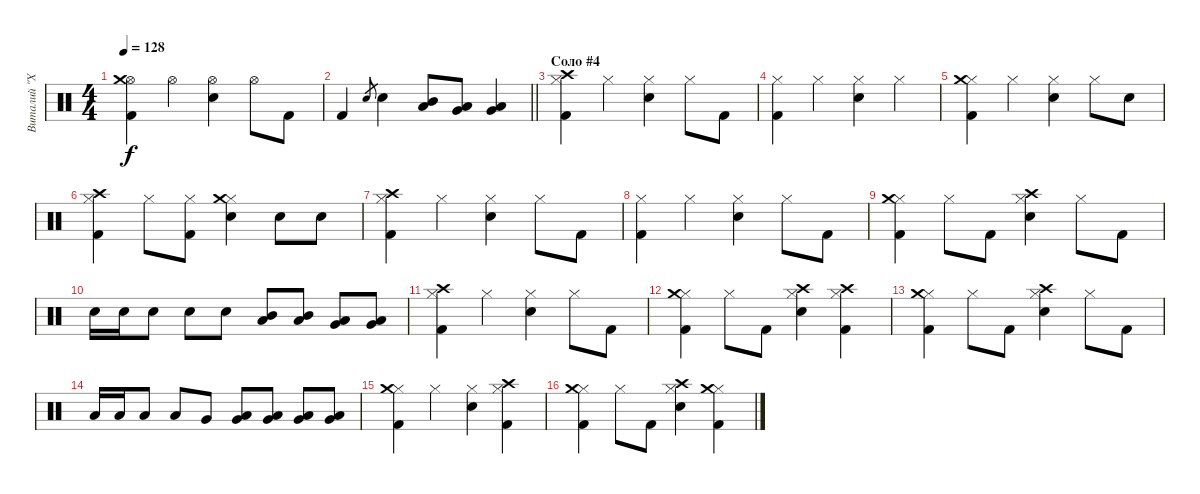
\track ("Виталий \"Хамер\" Лядов" "Виталий \"Х") {instrument percussion}
\staff {score}
\articulation defaults
\ts (4 4)
\tempo 128
\clef neutral
\ks c
("Kick (hit) 2" "Hi-Hat (open)" "Crash medium (hit)").4{dy f} "Hi-Hat (open)".4 ("Electric Snare (hit)" "Hi-Hat (open)").4 "Hi-Hat (open)".8 "Kick (hit) 2".8 |
\barLineRight lightlight "Kick (hit) 2".4 "Electric Snare (hit)".8{gr} "Electric Snare (hit)".4
("Mid Tom (hit)" "Low Tom (hit)").8 ("Low Tom (hit)" "Very Low Tom (hit)").8 ("Very Low Tom (hit)" "Low Floor Tom (hit)").4 |
\section ("" "Соло #4")
("Kick (hit) 2" "Hi-Hat (closed)" "Crash high (hit)").4 "Hi-Hat (closed)".4 ("Electric Snare (hit)" "Hi-Hat (closed)").4 "Hi-Hat (closed)".8 "Kick (hit) 2".8 |
("Kick (hit) 2" "Hi-Hat (closed)").4 "Hi-Hat (closed)".4 ("Electric Snare (hit)" "Hi-Hat (closed)").4 "Hi-Hat (closed)".4 |
("Kick (hit) 2" "Hi-Hat (closed)" "Crash medium (hit)").4 "Hi-Hat (closed)".4 ("Electric Snare (hit)" "Hi-Hat (closed)").4 "Hi-Hat (closed)".8 "Electric Snare (hit)".8 |
("Kick (hit) 2" "Hi-Hat (closed)" "Crash high (hit)").4 "Hi-Hat (closed)".8 ("Kick (hit) 2" "Hi-Hat (closed)").8 ("Electric Snare (hit)" "Hi-Hat (closed)" "Crash medium (hit)").4 "Electric Snare (hit)".8 "Electric Snare (hit)".8 |
("Kick (hit) 2" "Hi-Hat (closed)" "Crash high (hit)").4 "Hi-Hat (closed)".4 ("Electric Snare (hit)" "Hi-Hat (closed)").4 "Hi-Hat (closed)".8 "Kick (hit) 2".8 |
("Kick (hit) 2" "Hi-Hat (closed)").4 "Hi-Hat (closed)".4 ("Electric Snare (hit)" "Hi-Hat (closed)").4 "Hi-Hat (closed)".8 "Kick (hit) 2".8 |
("Kick (hit) 2" "Hi-Hat (closed)" "Crash medium (hit)").4 "Hi-Hat (closed)".8 "Kick (hit) 2".8 ("Electric Snare (hit)" "Hi-Hat (closed)" "Crash high (hit)").4 "Hi-Hat (closed)".8 "Kick (hit) 2".8 |
"Electric Snare (hit)".16 "Electric Snare (hit)".16 "Electric Snare (hit)".8 "Electric Snare (hit)".8 "Electric Snare (hit)".8 ("Low Tom (hit)" "Mid Tom (hit)").8 ("Low Tom (hit)" "Mid Tom (hit)").8 ("Very Low Tom (hit)" "Low Tom (hit)").8 ("Very Low Tom (hit)" "Low Tom (hit)").8 |
("Kick (hit) 2" "Hi-Hat (closed)" "Crash high (hit)").4 "Hi-Hat (closed)".4 ("Electric Snare (hit)" "Hi-Hat (closed)").4 "Hi-Hat (closed)".8 "Kick (hit) 2".8 |
("Kick (hit) 2" "Hi-Hat (closed)" "Crash medium (hit)").4 "Hi-Hat (closed)".8 "Kick (hit) 2".8 ("Electric Snare (hit)" "Hi-Hat (closed)" "Crash high (hit)").4 ("Kick (hit) 2" "Hi-Hat (closed)" "Crash high (hit)").4 |
("Kick (hit) 2" "Hi-Hat (closed)" "Crash medium (hit)").4 "Hi-Hat (closed)".8 "Kick (hit) 2".8 ("Electric Snare (hit)" "Hi-Hat (closed)" "Crash high (hit)").4 "Hi-Hat (closed)".8 "Kick (hit) 2".8 |
"Low Tom (hit)".16 "Low Tom (hit)".16 "Low Tom (hit)".8 "Low Tom (hit)".8 "Very Low Tom (hit)".8 ("Very Low Tom (hit)" "Low Tom (hit)").8 ("Very Low Tom (hit)" "Low Tom (hit)").8 ("Low Floor Tom (hit)" "Very Low Tom (hit)").8 ("Low Floor Tom (hit)" "Very Low Tom (hit)").8 |
("Kick (hit) 2" "Hi-Hat (closed)" "Crash medium (hit)").4 "Hi-Hat (closed)".4 ("Electric Snare (hit)" "Hi-Hat (closed)").4 ("Kick (hit) 2" "Hi-Hat (closed)" "Crash high (hit)").4 |
("Kick (hit) 2" "Hi-Hat (closed)" "Crash medium (hit)").4 "Hi-Hat (closed)".8 "Kick (hit) 2".8 ("Electric Snare (hit)" "Hi-Hat (closed)" "Crash high (hit)").4 ("Kick (hit) 2" "Hi-Hat (closed)" "Crash medium (hit)").4
